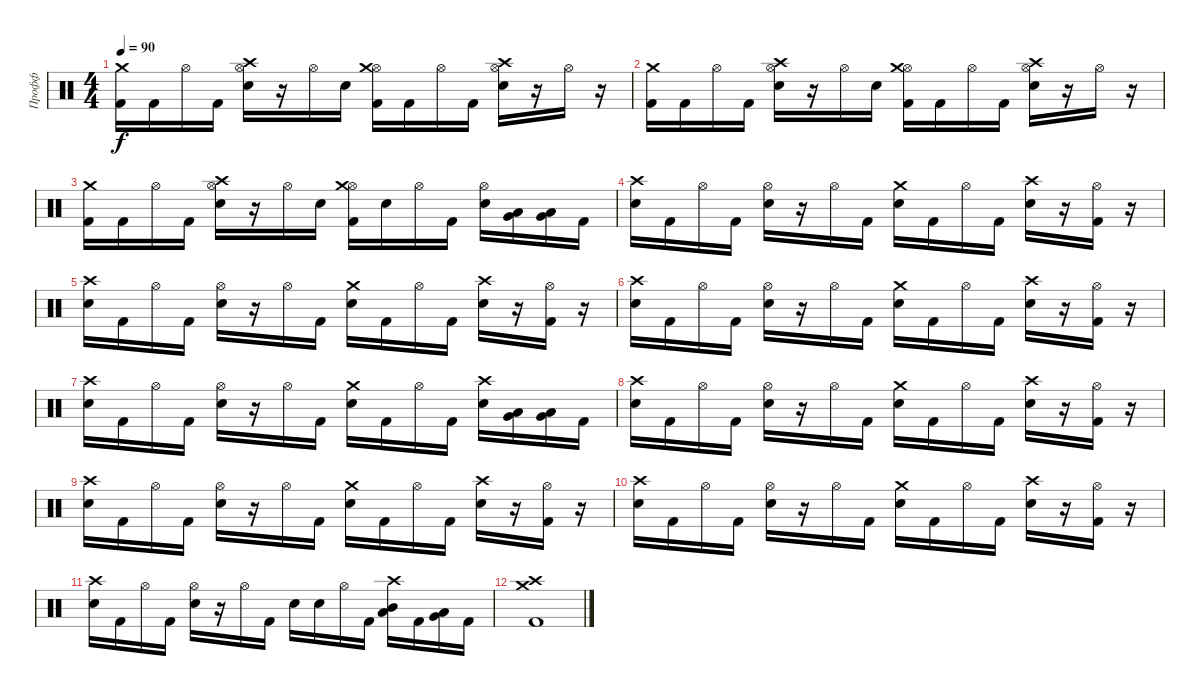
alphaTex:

\track ("Профф" "Профф") {instrument percussion}
\staff {score}
\articulation defaults
\ts (4 4)
\tempo 90
\clef neutral
\ks c
("Kick (hit) 2" "Crash medium (hit)").16{dy f} "Kick (hit) 2".16 "Hi-Hat (open)".16 "Kick (hit) 2".16 ("Electric Snare (hit)" "Hi-Hat (open)" "Crash high (hit)").16 r.16 "Hi-Hat (open)".16 "Electric Snare (hit)".16 ("Kick (hit) 2" "Hi-Hat (open)" "Crash medium (hit)").16 "Kick (hit) 2".16 "Hi-Hat (open)".16 "Kick (hit) 2".16 ("Electric Snare (hit)" "Hi-Hat (open)" "Crash high (hit)").16 r.16 "Hi-Hat (open)".16 r.16 |
("Kick (hit) 2" "Crash medium (hit)").16 "Kick (hit) 2".16 "Hi-Hat (open)".16 "Kick (hit) 2".16 ("Electric Snare (hit)" "Hi-Hat (open)" "Crash high (hit)").16 r.16 "Hi-Hat (open)".16 "Electric Snare (hit)".16 ("Kick (hit) 2" "Hi-Hat (open)" "Crash medium (hit)").16 "Kick (hit) 2".16 "Hi-Hat (open)".16 "Kick (hit) 2".16 ("Electric Snare (hit)" "Hi-Hat (open)" "Crash high (hit)").16 r.16 "Hi-Hat (open)".16 r.16 |
("Kick (hit) 2" "Crash medium (hit)").16 "Kick (hit) 2".16 "Hi-Hat (open)".16 "Kick (hit) 2".16 ("Electric Snare (hit)" "Hi-Hat (open)" "Crash high (hit)").16 r.16 "Hi-Hat (open)".16 "Electric Snare (hit)".16 ("Kick (hit) 2" "Hi-Hat (open)" "Crash medium (hit)").16 "Electric Snare (hit)".16 "Hi-Hat (open)".16 "Kick (hit) 2".16 ("Electric Snare (hit)" "Hi-Hat (open)").16 ("Very Low Tom (hit)" "Low Tom (hit)").16 ("Very Low Tom (hit)" "Low Tom (hit)").16 "Kick (hit) 2".16 |
("Electric Snare (hit)" "Crash high (hit)").16 "Kick (hit) 2".16 "Hi-Hat (open)".16 "Kick (hit) 2".16 ("Electric Snare (hit)" "Hi-Hat (open)").16 r.16 "Hi-Hat (open)".16 "Kick (hit) 2".16 ("Electric Snare (hit)" "Crash medium (hit)").16 "Kick (hit) 2".16 "Hi-Hat (open)".16 "Kick (hit) 2".16 ("Electric Snare (hit)" "Crash high (hit)").16 r.16 ("Kick (hit) 2" "Hi-Hat (open)").16 r.16 |
("Electric Snare (hit)" "Crash high (hit)").16 "Kick (hit) 2".16 "Hi-Hat (open)".16 "Kick (hit) 2".16 ("Electric Snare (hit)" "Hi-Hat (open)").16 r.16 "Hi-Hat (open)".16 "Kick (hit) 2".16 ("Electric Snare (hit)" "Crash medium (hit)").16 "Kick (hit) 2".16 "Hi-Hat (open)".16 "Kick (hit) 2".16 ("Electric Snare (hit)" "Crash high (hit)").16 r.16 ("Kick (hit) 2" "Hi-Hat (open)").16 r.16 |
("Electric Snare (hit)" "Crash high (hit)").16 "Kick (hit) 2".16 "Hi-Hat (open)".16 "Kick (hit) 2".16 ("Electric Snare (hit)" "Hi-Hat (open)").16 r.16 "Hi-Hat (open)".16 "Kick (hit) 2".16 ("Electric Snare (hit)" "Crash medium (hit)").16 "Kick (hit) 2".16 "Hi-Hat (open)".16 "Kick (hit) 2".16 ("Electric Snare (hit)" "Crash high (hit)").16 r.16 ("Kick (hit) 2" "Hi-Hat (open)").16 r.16 |
("Electric Snare (hit)" "Crash high (hit)").16 "Kick (hit) 2".16 "Hi-Hat (open)".16 "Kick (hit) 2".16 ("Electric Snare (hit)" "Hi-Hat (open)").16 r.16 "Hi-Hat (open)".16 "Kick (hit) 2".16 ("Electric Snare (hit)" "Crash medium (hit)").16 "Kick (hit) 2".16 "Hi-Hat (open)".16 "Kick (hit) 2".16 ("Electric Snare (hit)" "Crash high (hit)").16 ("Very Low Tom (hit)" "Low Tom (hit)").16 ("Very Low Tom (hit)" "Low Tom (hit)").16 "Kick (hit) 2".16 |
("Electric Snare (hit)" "Crash high (hit)").16 "Kick (hit) 2".16 "Hi-Hat (open)".16 "Kick (hit) 2".16 ("Electric Snare (hit)" "Hi-Hat (open)").16 r.16 "Hi-Hat (open)".16 "Kick (hit) 2".16 ("Electric Snare (hit)" "Crash medium (hit)").16 "Kick (hit) 2".16 "Hi-Hat (open)".16 "Kick (hit) 2".16 ("Electric Snare (hit)" "Crash high (hit)").16 r.16 ("Kick (hit) 2" "Hi-Hat (open)").16 r.16 |
("Electric Snare (hit)" "Crash high (hit)").16 "Kick (hit) 2".16 "Hi-Hat (open)".16 "Kick (hit) 2".16 ("Electric Snare (hit)" "Hi-Hat (open)").16 r.16 "Hi-Hat (open)".16 "Kick (hit) 2".16 ("Electric Snare (hit)" "Crash medium (hit)").16 "Kick (hit) 2".16 "Hi-Hat (open)".16 "Kick (hit) 2".16 ("Electric Snare (hit)" "Crash high (hit)").16 r.16 ("Kick (hit) 2" "Hi-Hat (open)").16 r.16 |
("Electric Snare (hit)" "Crash high (hit)").16 "Kick (hit) 2".16 "Hi-Hat (open)".16 "Kick (hit) 2".16 ("Electric Snare (hit)" "Hi-Hat (open)").16 r.16 "Hi-Hat (open)".16 "Kick (hit) 2".16 ("Electric Snare (hit)" "Crash medium (hit)").16 "Kick (hit) 2".16 "Hi-Hat (open)".16 "Kick (hit) 2".16 ("Electric Snare (hit)" "Crash high (hit)").16 r.16 ("Kick (hit) 2" "Hi-Hat (open)").16 r.16 |
("Electric Snare (hit)" "Crash high (hit)").16 "Kick (hit) 2".16 "Hi-Hat (open)".16 "Kick (hit) 2".16 ("Electric Snare (hit)" "Hi-Hat (open)").16 r.16 "Hi-Hat (open)".16 "Kick (hit) 2".16 "Electric Snare (hit)".16 "Electric Snare (hit)".16 "Hi-Hat (open)".16 "Kick (hit) 2".16 ("Mid Tom (hit)" "Low Tom (hit)" "Crash high (hit)").16 "Kick (hit) 2".16 ("Very Low Tom (hit)" "Low Tom (hit)").16 "Kick (hit) 2".16 |
("Kick (hit) 2" "Crash medium (hit)" "Crash high (hit)").1
